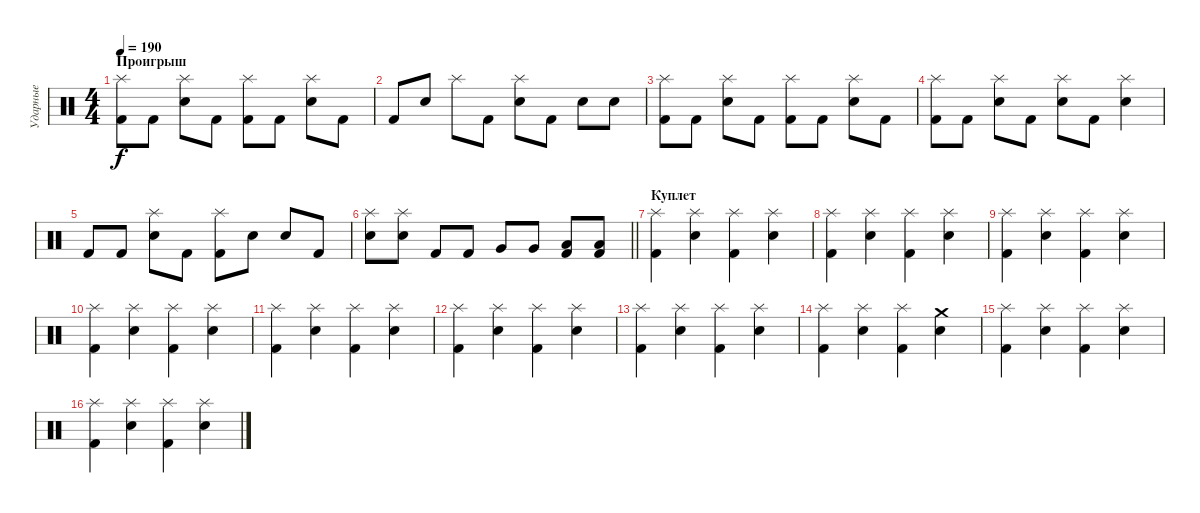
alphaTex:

\track ("Ударные" "Ударные") {instrument percussion}
\staff {score}
\articulation defaults
\ts (4 4)
\section ("" "Проигрыш")
\tempo 190
\clef neutral
\ks c
("Splash (hit)" "Kick (hit) 2").8{dy f} "Kick (hit) 2".8 ("Splash (hit)" "Electric Snare (hit)").8 "Kick (hit) 2".8 ("Splash (hit)" "Kick (hit) 2").8 "Kick (hit) 2".8 ("Splash (hit)" "Electric Snare (hit)").8 "Kick (hit) 2".8 |
"Kick (hit) 2".8 "Electric Snare (hit)".8 "Splash (hit)".8 "Kick (hit) 2".8 ("Splash (hit)" "Electric Snare (hit)").8 "Kick (hit) 2".8 "Electric Snare (hit)".8 "Electric Snare (hit)".8 |
("Splash (hit)" "Kick (hit) 2").8 "Kick (hit) 2".8 ("Splash (hit)" "Electric Snare (hit)").8 "Kick (hit) 2".8 ("Splash (hit)" "Kick (hit) 2").8 "Kick (hit) 2".8 ("Splash (hit)" "Electric Snare (hit)").8 "Kick (hit) 2".8 |
("Splash (hit)" "Kick (hit) 2").8 "Kick (hit) 2".8 ("Splash (hit)" "Electric Snare (hit)").8 "Kick (hit) 2".8 ("Splash (hit)" "Electric Snare (hit)").8 "Kick (hit) 2".8 ("Splash (hit)" "Electric Snare (hit)").4 |
"Kick (hit) 2".8 "Kick (hit) 2".8 ("Splash (hit)" "Electric Snare (hit)").8 "Kick (hit) 2".8 ("Splash (hit)" "Kick (hit) 2").8 "Electric Snare (hit)".8 "Electric Snare (hit)".8 "Kick (hit) 2".8 |
\barLineRight lightlight
("Splash (hit)" "Electric Snare (hit)").8 ("Splash (hit)" "Electric Snare (hit)").8 "Kick (hit) 2".8 "Kick (hit) 2".8 "Very Low Tom (hit)".8 "Very Low Tom (hit)".8 ("Low Floor Tom (hit)" "Kick (hit) 2").8 ("Low Floor Tom (hit)" "Kick (hit) 2").8 |
\section ("" "Куплет")
("Splash (hit)" "Kick (hit) 2").4 ("Splash (hit)" "Electric Snare (hit)").4 ("Splash (hit)" "Kick (hit) 2").4 ("Splash (hit)" "Electric Snare (hit)").4 |
("Splash (hit)" "Kick (hit) 2").4 ("Splash (hit)" "Electric Snare (hit)").4 ("Splash (hit)" "Kick (hit) 2").4 ("Splash (hit)" "Electric Snare (hit)").4 |
("Splash (hit)" "Kick (hit) 2").4 ("Splash (hit)" "Electric Snare (hit)").4 ("Splash (hit)" "Kick (hit) 2").4 ("Splash (hit)" "Electric Snare (hit)").4 |
("Splash (hit)" "Kick (hit) 2").4 ("Splash (hit)" "Electric Snare (hit)").4 ("Splash (hit)" "Kick (hit) 2").4 ("Splash (hit)" "Electric Snare (hit)").4 |
("Splash (hit)" "Kick (hit) 2").4 ("Splash (hit)" "Electric Snare (hit)").4 ("Splash (hit)" "Kick (hit) 2").4 ("Splash (hit)" "Electric Snare (hit)").4 |
("Splash (hit)" "Kick (hit) 2").4 ("Splash (hit)" "Electric Snare (hit)").4 ("Splash (hit)" "Kick (hit) 2").4 ("Splash (hit)" "Electric Snare (hit)").4 |
("Splash (hit)" "Kick (hit) 2").4 ("Splash (hit)" "Electric Snare (hit)").4 ("Splash (hit)" "Kick (hit) 2").4 ("Splash (hit)" "Electric Snare (hit)").4 |
("Splash (hit)" "Kick (hit) 2").4 ("Splash (hit)" "Electric Snare (hit)").4 ("Splash (hit)" "Kick (hit) 2").4 ("Crash medium (hit)" "Electric Snare (hit)").4 |
("Splash (hit)" "Kick (hit) 2").4 ("Splash (hit)" "Electric Snare (hit)").4 ("Splash (hit)" "Kick (hit) 2").4 ("Splash (hit)" "Electric Snare (hit)").4 |
("Splash (hit)" "Kick (hit) 2").4 ("Splash (hit)" "Electric Snare (hit)").4 ("Splash (hit)" "Kick (hit) 2").4 ("Splash (hit)" "Electric Snare (hit)").4
